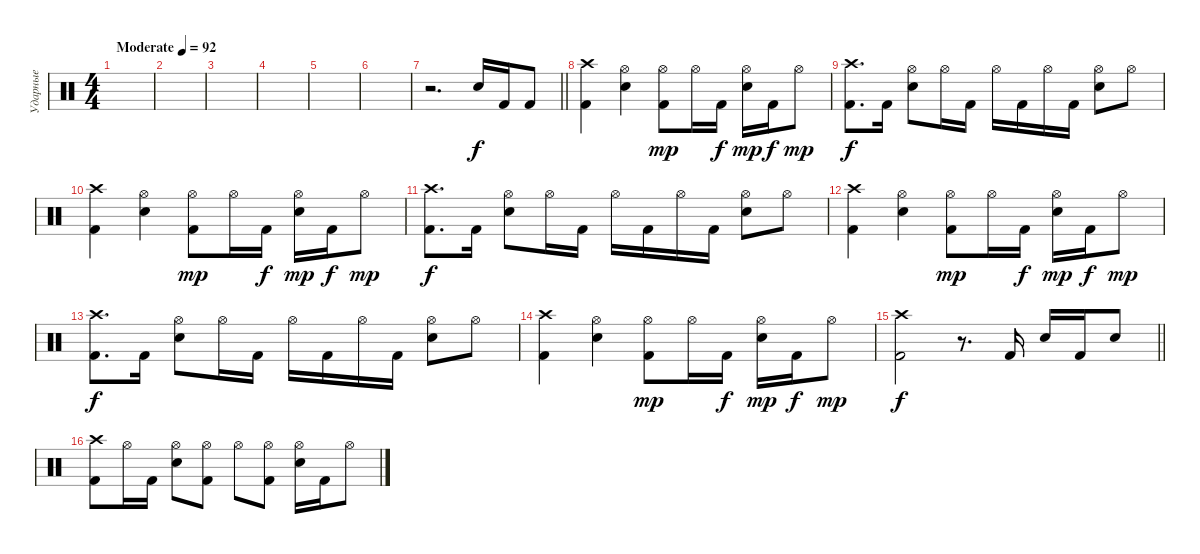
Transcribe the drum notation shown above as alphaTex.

\track ("Ударные" "Ударные") {instrument percussion}
\staff {score}
\articulation defaults
\ts (4 4)
\tempo (92 "Moderate")
\clef neutral
\ks c
|
|
|
|
|
|
\barLineRight lightlight
r.2{d} "Snare (hit) 2".16 "Kick (hit) 2".16 "Kick (hit) 2".8 |
("Kick (hit) 2" "Crash high (hit)").4 ("Snare (hit) 2" "Hi-Hat (open)").4 ("Kick (hit) 2" "Hi-Hat (open)").8{dy mp} "Hi-Hat (open)".16 "Kick (hit) 2".16{dy f} ("Snare (hit) 2" "Hi-Hat (open)").16{dy mp} "Kick (hit) 2".16{dy f} "Hi-Hat (open)".8{dy mp} |
("Kick (hit) 2" "Crash high (hit)").8{d dy f} "Kick (hit) 2".16 ("Snare (hit) 2" "Hi-Hat (open)").8 "Hi-Hat (open)".16 "Kick (hit) 2".16 "Hi-Hat (open)".16 "Kick (hit) 2".16 "Hi-Hat (open)".16 "Kick (hit) 2".16 ("Snare (hit) 2" "Hi-Hat (open)").8 "Hi-Hat (open)".8 |
("Kick (hit) 2" "Crash high (hit)").4 ("Snare (hit) 2" "Hi-Hat (open)").4 ("Kick (hit) 2" "Hi-Hat (open)").8{dy mp} "Hi-Hat (open)".16 "Kick (hit) 2".16{dy f} ("Snare (hit) 2" "Hi-Hat (open)").16{dy mp} "Kick (hit) 2".16{dy f} "Hi-Hat (open)".8{dy mp} |
("Kick (hit) 2" "Crash high (hit)").8{d dy f} "Kick (hit) 2".16 ("Snare (hit) 2" "Hi-Hat (open)").8 "Hi-Hat (open)".16 "Kick (hit) 2".16 "Hi-Hat (open)".16 "Kick (hit) 2".16 "Hi-Hat (open)".16 "Kick (hit) 2".16 ("Snare (hit) 2" "Hi-Hat (open)").8 "Hi-Hat (open)".8 |
("Kick (hit) 2" "Crash high (hit)").4 ("Snare (hit) 2" "Hi-Hat (open)").4 ("Kick (hit) 2" "Hi-Hat (open)").8{dy mp} "Hi-Hat (open)".16 "Kick (hit) 2".16{dy f} ("Snare (hit) 2" "Hi-Hat (open)").16{dy mp} "Kick (hit) 2".16{dy f} "Hi-Hat (open)".8{dy mp} |
("Kick (hit) 2" "Crash high (hit)").8{d dy f} "Kick (hit) 2".16 ("Snare (hit) 2" "Hi-Hat (open)").8 "Hi-Hat (open)".16 "Kick (hit) 2".16 "Hi-Hat (open)".16 "Kick (hit) 2".16 "Hi-Hat (open)".16 "Kick (hit) 2".16 ("Snare (hit) 2" "Hi-Hat (open)").8 "Hi-Hat (open)".8 |
("Kick (hit) 2" "Crash high (hit)").4 ("Snare (hit) 2" "Hi-Hat (open)").4 ("Kick (hit) 2" "Hi-Hat (open)").8{dy mp} "Hi-Hat (open)".16 "Kick (hit) 2".16{dy f} ("Snare (hit) 2" "Hi-Hat (open)").16{dy mp} "Kick (hit) 2".16{dy f} "Hi-Hat (open)".8{dy mp} |
\barLineRight lightlight
("Kick (hit) 2" "Crash high (hit)").2{dy f} r.8{d} "Kick (hit) 2".16 "Snare (hit) 2".16 "Kick (hit) 2".16 "Snare (hit) 2".8 |
("Kick (hit) 2" "Crash high (hit)").8 "Hi-Hat (open)".16 "Kick (hit) 2".16 ("Snare (hit) 2" "Hi-Hat (open)").8 ("Kick (hit) 2" "Hi-Hat (open)").8 "Hi-Hat (open)".8 ("Kick (hit) 2" "Hi-Hat (open)").8 ("Snare (hit) 2" "Hi-Hat (open)").16 "Kick (hit) 2".16 "Hi-Hat (open)".8
